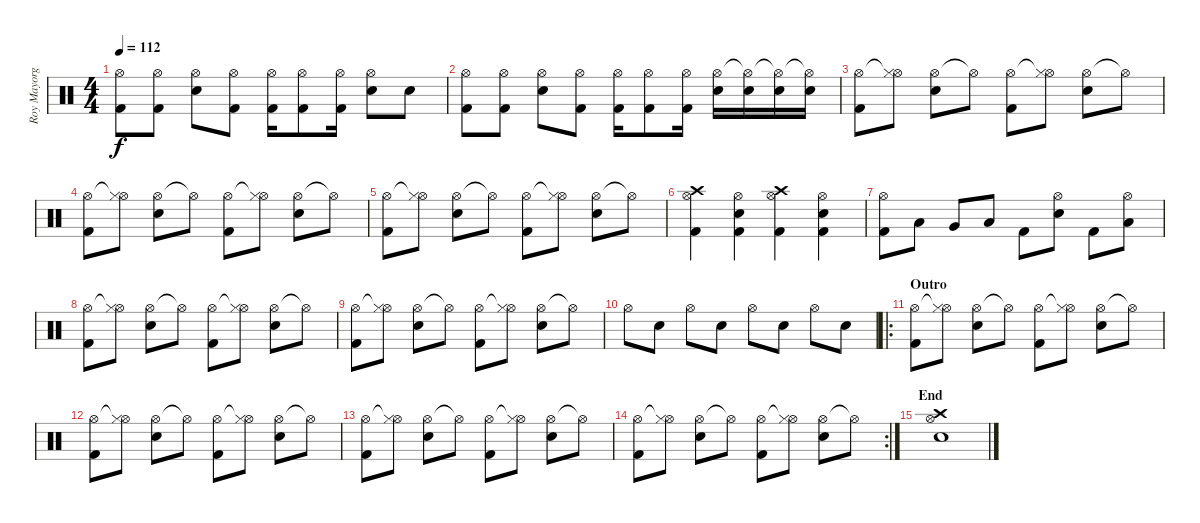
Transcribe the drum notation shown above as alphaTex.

\track ("Roy Mayorga" "Roy Mayorg") {instrument percussion}
\staff {score}
\articulation defaults
\ts (4 4)
\tempo 112
\clef neutral
\ks c
("Hi-Hat (open)" "Kick (hit) 2").8{dy f} ("Hi-Hat (open)" "Kick (hit) 2").8 ("Hi-Hat (open)" "Snare (hit) 2").8 ("Hi-Hat (open)" "Kick (hit) 2").8 ("Hi-Hat (open)" "Kick (hit) 2").16 ("Hi-Hat (open)" "Kick (hit) 2").8 ("Hi-Hat (open)" "Kick (hit) 2").16 ("Hi-Hat (open)" "Snare (hit) 2").8 "Snare (hit) 2".8 |
("Hi-Hat (open)" "Kick (hit) 2").8 ("Hi-Hat (open)" "Kick (hit) 2").8 ("Hi-Hat (open)" "Snare (hit) 2").8 ("Hi-Hat (open)" "Kick (hit) 2").8 ("Hi-Hat (open)" "Kick (hit) 2").16 ("Hi-Hat (open)" "Kick (hit) 2").8 ("Hi-Hat (open)" "Kick (hit) 2").16 ("Hi-Hat (open)" "Snare (hit) 2").16 ("Hi-Hat (open)"{t} "Snare (hit) 2").16 ("Hi-Hat (open)"{t} "Snare (hit) 2").16 ("Hi-Hat (open)"{t} "Snare (hit) 2").16 |
("Hi-Hat (open)" "Kick (hit) 2").8 ("Hi-Hat (open)"{t} "Hi-Hat (closed)").8 ("Hi-Hat (open)" "Snare (hit) 2").8 "Hi-Hat (open)"{t}.8 ("Hi-Hat (open)" "Kick (hit) 2").8 ("Hi-Hat (open)"{t} "Hi-Hat (closed)").8 ("Hi-Hat (open)" "Snare (hit) 2").8 "Hi-Hat (open)"{t}.8 |
("Hi-Hat (open)" "Kick (hit) 2").8 ("Hi-Hat (open)"{t} "Hi-Hat (closed)").8 ("Hi-Hat (open)" "Snare (hit) 2").8 "Hi-Hat (open)"{t}.8 ("Hi-Hat (open)" "Kick (hit) 2").8 ("Hi-Hat (open)"{t} "Hi-Hat (closed)").8 ("Hi-Hat (open)" "Snare (hit) 2").8 "Hi-Hat (open)"{t}.8 |
("Hi-Hat (open)" "Kick (hit) 2").8 ("Hi-Hat (open)"{t} "Hi-Hat (closed)").8 ("Hi-Hat (open)" "Snare (hit) 2").8 "Hi-Hat (open)"{t}.8 ("Hi-Hat (open)" "Kick (hit) 2").8 ("Hi-Hat (open)"{t} "Hi-Hat (closed)").8 ("Hi-Hat (open)" "Snare (hit) 2").8 "Hi-Hat (open)"{t}.8 |
("Crash high (hit)" "Hi-Hat (open)" "Kick (hit) 2").4 ("Hi-Hat (open)" "Snare (hit) 2" "Kick (hit) 2").4 ("Crash high (hit)" "Hi-Hat (open)" "Kick (hit) 2").4 ("Hi-Hat (open)" "Snare (hit) 2" "Kick (hit) 2").4 |
("Hi-Hat (open)" "Kick (hit) 2").8 "Low Tom (hit)".8 "Very Low Tom (hit)".8 "Low Floor Tom (hit)".8 "Kick (hit) 2".8 ("Hi-Hat (open)" "Snare (hit) 2").8 "Kick (hit) 2".8 ("Hi-Hat (open)" "Low Tom (hit)").8 |
("Hi-Hat (open)" "Kick (hit) 2").8 ("Hi-Hat (open)"{t} "Hi-Hat (closed)").8 ("Hi-Hat (open)" "Snare (hit) 2").8 "Hi-Hat (open)"{t}.8 ("Hi-Hat (open)" "Kick (hit) 2").8 ("Hi-Hat (open)"{t} "Hi-Hat (closed)").8 ("Hi-Hat (open)" "Snare (hit) 2").8 "Hi-Hat (open)"{t}.8 |
("Hi-Hat (open)" "Kick (hit) 2").8 ("Hi-Hat (open)"{t} "Hi-Hat (closed)").8 ("Hi-Hat (open)" "Snare (hit) 2").8 "Hi-Hat (open)"{t}.8 ("Hi-Hat (open)" "Kick (hit) 2").8 ("Hi-Hat (open)"{t} "Hi-Hat (closed)").8 ("Hi-Hat (open)" "Snare (hit) 2").8 "Hi-Hat (open)"{t}.8 |
"Hi-Hat (open)".8 "Snare (hit) 2".8 "Hi-Hat (open)".8 "Snare (hit) 2".8 "Hi-Hat (open)".8 "Snare (hit) 2".8 "Hi-Hat (open)".8 "Snare (hit) 2".8 |
\ro
\section ("" "Outro")
("Hi-Hat (open)" "Kick (hit) 2").8 ("Hi-Hat (open)"{t} "Hi-Hat (closed)").8 ("Hi-Hat (open)" "Snare (hit) 2").8 "Hi-Hat (open)"{t}.8 ("Hi-Hat (open)" "Kick (hit) 2").8 ("Hi-Hat (open)"{t} "Hi-Hat (closed)").8 ("Hi-Hat (open)" "Snare (hit) 2").8 "Hi-Hat (open)"{t}.8 |
("Hi-Hat (open)" "Kick (hit) 2").8 ("Hi-Hat (open)"{t} "Hi-Hat (closed)").8 ("Hi-Hat (open)" "Snare (hit) 2").8 "Hi-Hat (open)"{t}.8 ("Hi-Hat (open)" "Kick (hit) 2").8 ("Hi-Hat (open)"{t} "Hi-Hat (closed)").8 ("Hi-Hat (open)" "Snare (hit) 2").8 "Hi-Hat (open)"{t}.8 |
("Hi-Hat (open)" "Kick (hit) 2").8 ("Hi-Hat (open)"{t} "Hi-Hat (closed)").8 ("Hi-Hat (open)" "Snare (hit) 2").8 "Hi-Hat (open)"{t}.8 ("Hi-Hat (open)" "Kick (hit) 2").8 ("Hi-Hat (open)"{t} "Hi-Hat (closed)").8 ("Hi-Hat (open)" "Snare (hit) 2").8 "Hi-Hat (open)"{t}.8 |
\rc 2
("Hi-Hat (open)" "Kick (hit) 2").8 ("Hi-Hat (open)"{t} "Hi-Hat (closed)").8 ("Hi-Hat (open)" "Snare (hit) 2").8 "Hi-Hat (open)"{t}.8 ("Hi-Hat (open)" "Kick (hit) 2").8 ("Hi-Hat (open)"{t} "Hi-Hat (closed)").8 ("Hi-Hat (open)" "Snare (hit) 2").8 "Hi-Hat (open)"{t}.8 |
\section ("" "End")
("Crash high (hit)" "Hi-Hat (open)" "Snare (hit) 2").1
